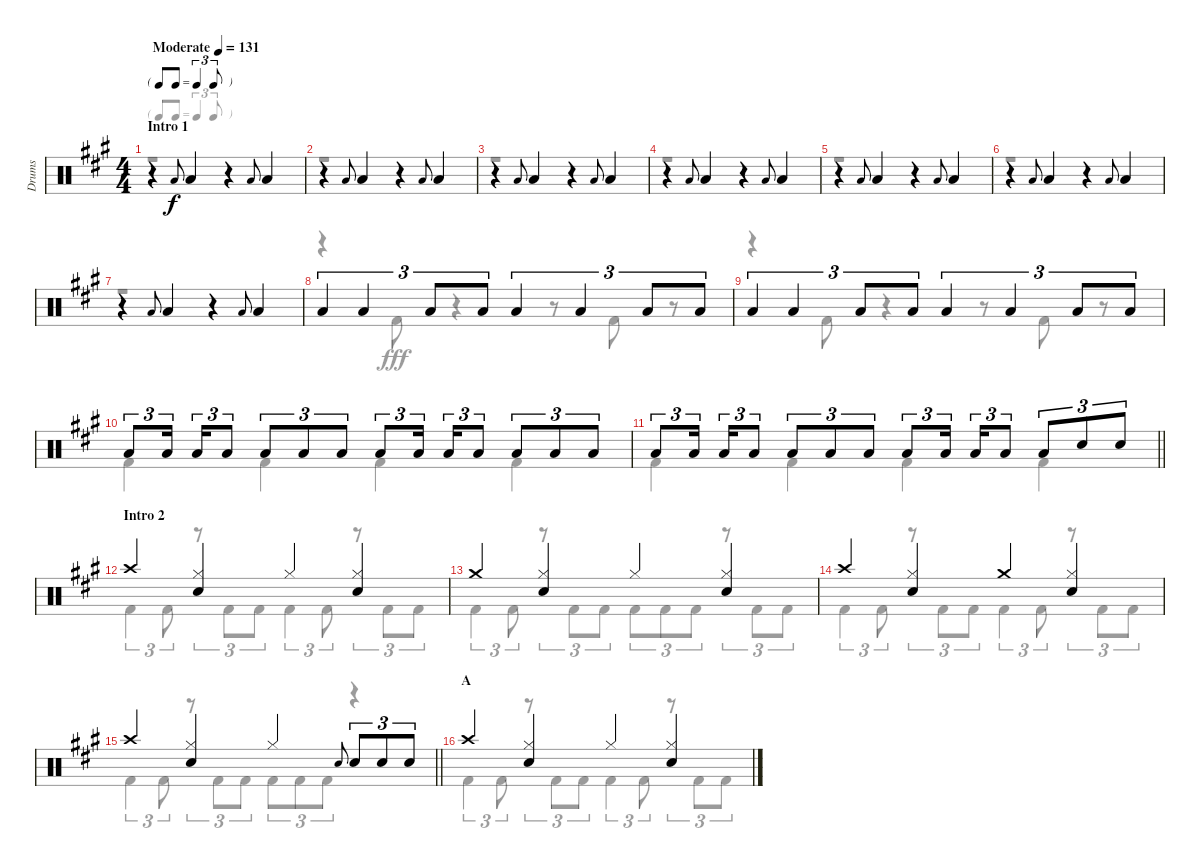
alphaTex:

\track ("Drums" "Drums") {instrument percussion}
\staff {score}
\articulation defaults
\voice
\ts (4 4)
\tf triplet8th
\section ("" "Intro 1")
\tempo (131 "Moderate")
\clef neutral
\ks a
r.4{dy f} "Low Tom (hit)".8{gr onbeat} "Low Tom (hit)".4 r.4 "Low Tom (hit)".8{gr onbeat} "Low Tom (hit)".4 |
r.4 "Low Tom (hit)".8{gr onbeat} "Low Tom (hit)".4 r.4 "Low Tom (hit)".8{gr onbeat} "Low Tom (hit)".4 |
r.4 "Low Tom (hit)".8{gr onbeat} "Low Tom (hit)".4 r.4 "Low Tom (hit)".8{gr onbeat} "Low Tom (hit)".4 |
r.4 "Low Tom (hit)".8{gr onbeat} "Low Tom (hit)".4 r.4 "Low Tom (hit)".8{gr onbeat} "Low Tom (hit)".4 |
r.4 "Low Tom (hit)".8{gr onbeat} "Low Tom (hit)".4 r.4 "Low Tom (hit)".8{gr onbeat} "Low Tom (hit)".4 |
r.4 "Low Tom (hit)".8{gr onbeat} "Low Tom (hit)".4 r.4 "Low Tom (hit)".8{gr onbeat} "Low Tom (hit)".4 |
r.4 "Low Tom (hit)".8{gr onbeat} "Low Tom (hit)".4 r.4 "Low Tom (hit)".8{gr onbeat} "Low Tom (hit)".4 |
"Low Tom (hit)".4{tu (3 2)} "Low Tom (hit)".4{tu (3 2)} "Low Tom (hit)".8{tu (3 2)} "Low Tom (hit)".8{tu (3 2)} "Low Tom (hit)".4{tu (3 2)} "Low Tom (hit)".4{tu (3 2)} "Low Tom (hit)".8{tu (3 2)} "Low Tom (hit)".8{tu (3 2)} |
"Low Tom (hit)".4{tu (3 2)} "Low Tom (hit)".4{tu (3 2)} "Low Tom (hit)".8{tu (3 2)} "Low Tom (hit)".8{tu (3 2)} "Low Tom (hit)".4{tu (3 2)} "Low Tom (hit)".4{tu (3 2)} "Low Tom (hit)".8{tu (3 2)} "Low Tom (hit)".8{tu (3 2)} |
"Low Tom (hit)".8{tu (3 2)} "Low Tom (hit)".16{tu (3 2) beam splitsecondary} "Low Tom (hit)".16{tu (3 2)} "Low Tom (hit)".8{tu (3 2)} "Low Tom (hit)".8{tu (3 2)} "Low Tom (hit)".8{tu (3 2)} "Low Tom (hit)".8{tu (3 2)} "Low Tom (hit)".8{tu (3 2)} "Low Tom (hit)".16{tu (3 2) beam splitsecondary} "Low Tom (hit)".16{tu (3 2)} "Low Tom (hit)".8{tu (3 2)} "Low Tom (hit)".8{tu (3 2)} "Low Tom (hit)".8{tu (3 2)} "Low Tom (hit)".8{tu (3 2)} |
\barLineRight lightlight "Low Tom (hit)".8{tu (3 2)} "Low Tom (hit)".16{tu (3 2) beam splitsecondary} "Low Tom (hit)".16{tu (3 2)} "Low Tom (hit)".8{tu (3 2)} "Low Tom (hit)".8{tu (3 2)} "Low Tom (hit)".8{tu (3 2)} "Low Tom (hit)".8{tu (3 2)} "Low Tom (hit)".8{tu (3 2)} "Low Tom (hit)".16{tu (3 2) beam splitsecondary} "Low Tom (hit)".16{tu (3 2)} "Low Tom (hit)".8{tu (3 2)} "Low Tom (hit)".8{tu (3 2)} "Snare (hit) 2".8{tu (3 2)} "Snare (hit) 2".8{tu (3 2)}
|
\section ("" "Intro 2")
"Crash high (hit)".4 ("Hi-Hat (closed)" "Snare (hit) 2").4 "Hi-Hat (closed)".4 ("Hi-Hat (closed)" "Snare (hit) 2").4 |
"Crash medium (hit)".4 ("Hi-Hat (closed)" "Snare (hit) 2").4 "Hi-Hat (closed)".4 ("Hi-Hat (closed)" "Snare (hit) 2").4 |
"Crash high (hit)".4 ("Hi-Hat (closed)" "Snare (hit) 2").4 "Crash medium (hit)".4 ("Hi-Hat (closed)" "Snare (hit) 2").4 |
\barLineRight lightlight "Crash high (hit)".4
("Hi-Hat (closed)" "Snare (hit) 2").4 "Hi-Hat (closed)".4 "Snare (hit) 2".8{gr onbeat} "Snare (hit) 2".8{tu (3 2)} "Snare (hit) 2".8{tu (3 2)} "Snare (hit) 2".8{tu (3 2)} |
\section ("" "A")
"Crash high (hit)".4 ("Hi-Hat (closed)" "Snare (hit) 2").4 "Hi-Hat (closed)".4 ("Hi-Hat (closed)" "Snare (hit) 2").4
\voice
\clef neutral
\ottava regular
\simile none
\ks a
r.1{dy fff} |
r.1 |
r.1 |
r.1 |
r.1 |
r.1 |
r.1 |
r.4 "Kick (hit) 2".8 r.4 r.8 "Kick (hit) 2".8 r.8 |
r.4 "Kick (hit) 2".8 r.4 r.8 "Kick (hit) 2".8 r.8 |
"Kick (hit) 2".4 "Kick (hit) 2".4 "Kick (hit) 2".4 "Kick (hit) 2".4 |
\barLineRight lightlight "Kick (hit) 2".4 "Kick (hit) 2".4 "Kick (hit) 2".4 "Kick (hit) 2".4
|
"Kick (hit) 2".4{tu (3 2)} "Kick (hit) 2".8{tu (3 2)} r.8{tu (3 2)} "Kick (hit) 2".8{tu (3 2)} "Kick (hit) 2".8{tu (3 2)} "Kick (hit) 2".4{tu (3 2)} "Kick (hit) 2".8{tu (3 2)} r.8{tu (3 2)} "Kick (hit) 2".8{tu (3 2)} "Kick (hit) 2".8{tu (3 2)} |
"Kick (hit) 2".4{tu (3 2)} "Kick (hit) 2".8{tu (3 2)} r.8{tu (3 2)} "Kick (hit) 2".8{tu (3 2)} "Kick (hit) 2".8{tu (3 2)} "Kick (hit) 2".8{tu (3 2)} "Kick (hit) 2".8{tu (3 2)} "Kick (hit) 2".8{tu (3 2)} r.8{tu (3 2)} "Kick (hit) 2".8{tu (3 2)} "Kick (hit) 2".8{tu (3 2)} |
"Kick (hit) 2".4{tu (3 2)} "Kick (hit) 2".8{tu (3 2)} r.8{tu (3 2)} "Kick (hit) 2".8{tu (3 2)} "Kick (hit) 2".8{tu (3 2)} "Kick (hit) 2".4{tu (3 2)} "Kick (hit) 2".8{tu (3 2)} r.8{tu (3 2)} "Kick (hit) 2".8{tu (3 2)} "Kick (hit) 2".8{tu (3 2)} |
\barLineRight lightlight "Kick (hit) 2".4{tu (3 2)} "Kick (hit) 2".8{tu (3 2)}
r.8{tu (3 2)} "Kick (hit) 2".8{tu (3 2)} "Kick (hit) 2".8{tu (3 2)} "Kick (hit) 2".8{tu (3 2)} "Kick (hit) 2".8{tu (3 2)} "Kick (hit) 2".8{tu (3 2)} r.4 |
"Kick (hit) 2".4{tu (3 2)} "Kick (hit) 2".8{tu (3 2)} r.8{tu (3 2)} "Kick (hit) 2".8{tu (3 2)} "Kick (hit) 2".8{tu (3 2)} "Kick (hit) 2".4{tu (3 2)} "Kick (hit) 2".8{tu (3 2)} r.8{tu (3 2)} "Kick (hit) 2".8{tu (3 2)} "Kick (hit) 2".8{tu (3 2)}
